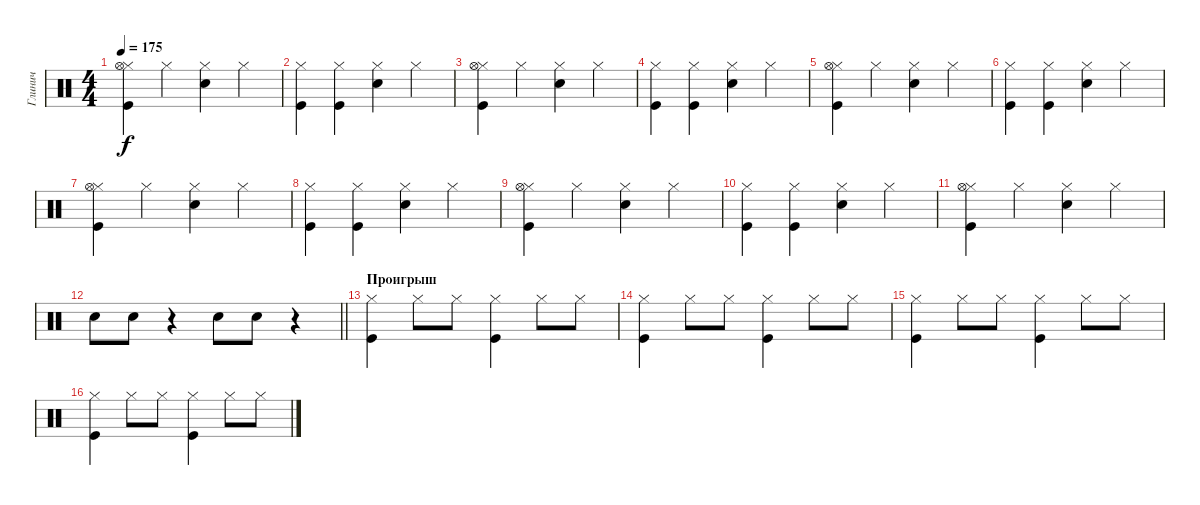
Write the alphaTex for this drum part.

\track ("Глинич" "Глинич") {instrument percussion}
\staff {score}
\articulation defaults
\ts (4 4)
\tempo 175
\clef neutral
\ks c
("Hi-Hat (closed)" "Kick (hit)" "Hi-Hat (open)").4{dy f} "Hi-Hat (closed)".4 ("Hi-Hat (closed)" "Snare (hit) 2").4 "Hi-Hat (closed)".4 |
("Hi-Hat (closed)" "Kick (hit)").4 ("Hi-Hat (closed)" "Kick (hit)").4 ("Hi-Hat (closed)" "Snare (hit) 2").4 "Hi-Hat (closed)".4 |
("Hi-Hat (closed)" "Kick (hit)" "Hi-Hat (open)").4 "Hi-Hat (closed)".4 ("Hi-Hat (closed)" "Snare (hit) 2").4 "Hi-Hat (closed)".4 |
("Hi-Hat (closed)" "Kick (hit)").4 ("Hi-Hat (closed)" "Kick (hit)").4 ("Hi-Hat (closed)" "Snare (hit) 2").4 "Hi-Hat (closed)".4 |
("Hi-Hat (closed)" "Kick (hit)" "Hi-Hat (open)").4 "Hi-Hat (closed)".4 ("Hi-Hat (closed)" "Snare (hit) 2").4 "Hi-Hat (closed)".4 |
("Hi-Hat (closed)" "Kick (hit)").4 ("Hi-Hat (closed)" "Kick (hit)").4 ("Hi-Hat (closed)" "Snare (hit) 2").4 "Hi-Hat (closed)".4 |
("Hi-Hat (closed)" "Kick (hit)" "Hi-Hat (open)").4 "Hi-Hat (closed)".4 ("Hi-Hat (closed)" "Snare (hit) 2").4 "Hi-Hat (closed)".4 |
("Hi-Hat (closed)" "Kick (hit)").4 ("Hi-Hat (closed)" "Kick (hit)").4 ("Hi-Hat (closed)" "Snare (hit) 2").4 "Hi-Hat (closed)".4 |
("Hi-Hat (closed)" "Kick (hit)" "Hi-Hat (open)").4 "Hi-Hat (closed)".4 ("Hi-Hat (closed)" "Snare (hit) 2").4 "Hi-Hat (closed)".4 |
("Hi-Hat (closed)" "Kick (hit)").4 ("Hi-Hat (closed)" "Kick (hit)").4 ("Hi-Hat (closed)" "Snare (hit) 2").4 "Hi-Hat (closed)".4 |
("Hi-Hat (closed)" "Kick (hit)" "Hi-Hat (open)").4 "Hi-Hat (closed)".4 ("Hi-Hat (closed)" "Snare (hit) 2").4 "Hi-Hat (closed)".4 |
\barLineRight lightlight "Snare (hit) 2".8 "Snare (hit) 2".8
r.4 "Snare (hit) 2".8 "Snare (hit) 2".8 r.4 |
\section ("" "Проигрыш")
("Hi-Hat (closed)" "Kick (hit)").4 "Hi-Hat (closed)".8 "Hi-Hat (closed)".8 ("Hi-Hat (closed)" "Kick (hit)").4 "Hi-Hat (closed)".8 "Hi-Hat (closed)".8 |
("Hi-Hat (closed)" "Kick (hit)").4 "Hi-Hat (closed)".8 "Hi-Hat (closed)".8 ("Hi-Hat (closed)" "Kick (hit)").4 "Hi-Hat (closed)".8 "Hi-Hat (closed)".8 |
("Hi-Hat (closed)" "Kick (hit)").4 "Hi-Hat (closed)".8 "Hi-Hat (closed)".8 ("Hi-Hat (closed)" "Kick (hit)").4 "Hi-Hat (closed)".8 "Hi-Hat (closed)".8 |
("Hi-Hat (closed)" "Kick (hit)").4 "Hi-Hat (closed)".8 "Hi-Hat (closed)".8 ("Hi-Hat (closed)" "Kick (hit)").4 "Hi-Hat (closed)".8 "Hi-Hat (closed)".8
